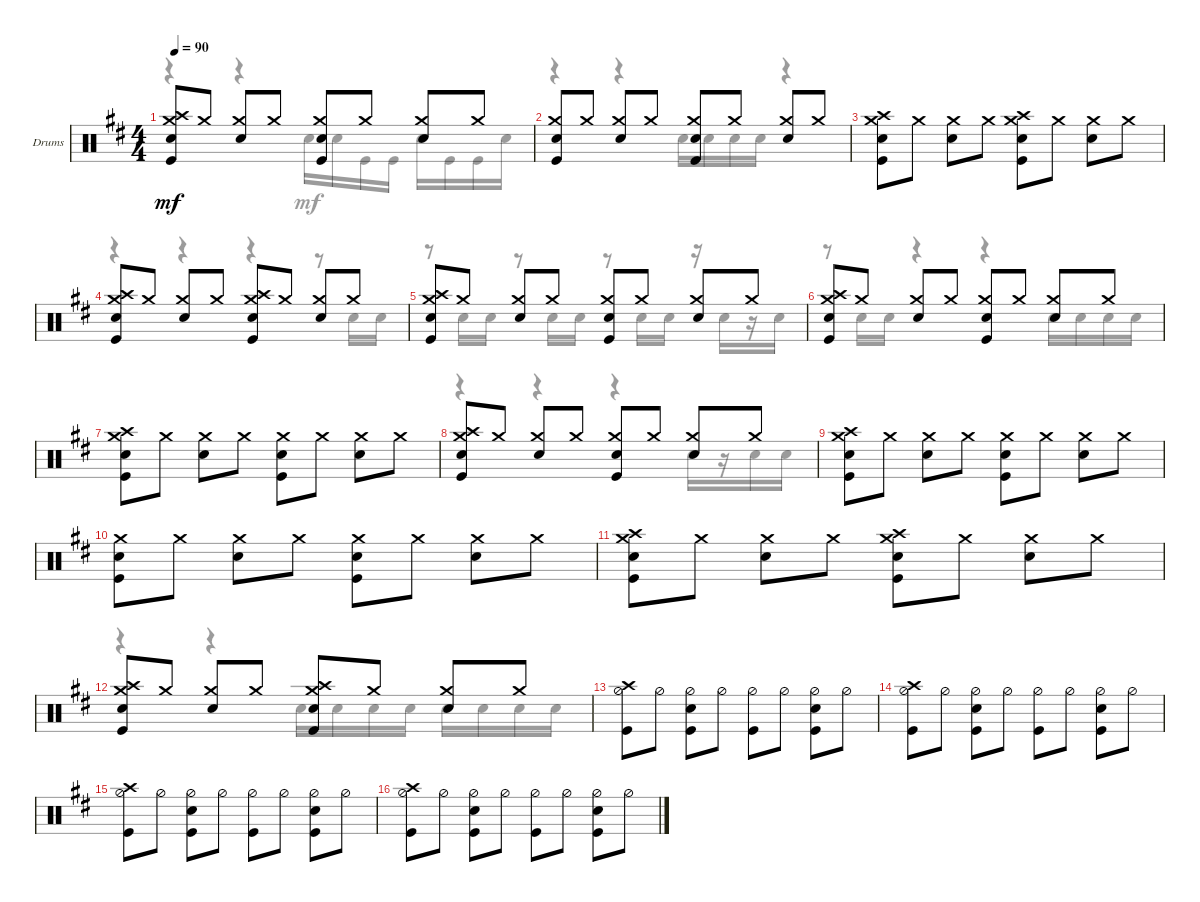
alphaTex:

\defaultSystemsLayout 4
\bracketExtendMode groupsimilarinstruments
\firstSystemTrackNameOrientation horizontal
\otherSystemsTrackNameOrientation horizontal
\track ("Drumkit" "Drums") {instrument percussion}
\staff {score}
\articulation defaults
\voice
\ts (4 4)
\tempo 90
\clef neutral
\ks bminor
("Kick (hit)" "Snare (hit) 2" "Crash medium (hit)" "Crash high (hit)").8{dy mf} "Crash medium (hit)".8 ("Snare (hit) 2" "Crash medium (hit)").8 "Crash medium (hit)".8 ("Kick (hit)" "Snare (hit) 2" "Crash medium (hit)").8 "Crash medium (hit)".8 ("Snare (hit) 2" "Crash medium (hit)").8 "Crash medium (hit)".8 |
("Kick (hit)" "Snare (hit) 2" "Crash medium (hit)").8 "Crash medium (hit)".8 ("Snare (hit) 2" "Crash medium (hit)").8 "Crash medium (hit)".8 ("Kick (hit)" "Snare (hit) 2" "Crash medium (hit)").8 "Crash medium (hit)".8 ("Snare (hit) 2" "Crash medium (hit)").8 "Crash medium (hit)".8 |
("Kick (hit)" "Snare (hit) 2" "Crash medium (hit)" "Crash high (hit)").8 "Crash medium (hit)".8 ("Snare (hit) 2" "Crash medium (hit)").8 "Crash medium (hit)".8 ("Kick (hit)" "Snare (hit) 2" "Crash medium (hit)" "Crash high (hit)").8 "Crash medium (hit)".8 ("Snare (hit) 2" "Crash medium (hit)").8 "Crash medium (hit)".8 |
("Kick (hit)" "Snare (hit) 2" "Crash medium (hit)" "Crash high (hit)").8 "Crash medium (hit)".8 ("Snare (hit) 2" "Crash medium (hit)").8 "Crash medium (hit)".8 ("Kick (hit)" "Snare (hit) 2" "Crash medium (hit)" "Crash high (hit)").8 "Crash medium (hit)".8 ("Snare (hit) 2" "Crash medium (hit)").8 "Crash medium (hit)".8 |
("Kick (hit)" "Snare (hit) 2" "Crash medium (hit)" "Crash high (hit)").8 "Crash medium (hit)".8 ("Snare (hit) 2" "Crash medium (hit)").8 "Crash medium (hit)".8 ("Kick (hit)" "Snare (hit) 2" "Crash medium (hit)").8 "Crash medium (hit)".8 ("Snare (hit) 2" "Crash medium (hit)").8 "Crash medium (hit)".8 |
("Kick (hit)" "Snare (hit) 2" "Crash medium (hit)" "Crash high (hit)").8 "Crash medium (hit)".8 ("Snare (hit) 2" "Crash medium (hit)").8 "Crash medium (hit)".8 ("Kick (hit)" "Snare (hit) 2" "Crash medium (hit)").8 "Crash medium (hit)".8 ("Snare (hit) 2" "Crash medium (hit)").8 "Crash medium (hit)".8 |
("Kick (hit)" "Snare (hit) 2" "Crash medium (hit)" "Crash high (hit)").8 "Crash medium (hit)".8 ("Snare (hit) 2" "Crash medium (hit)").8 "Crash medium (hit)".8 ("Kick (hit)" "Snare (hit) 2" "Crash medium (hit)").8 "Crash medium (hit)".8 ("Snare (hit) 2" "Crash medium (hit)").8 "Crash medium (hit)".8 |
("Kick (hit)" "Snare (hit) 2" "Crash medium (hit)" "Crash high (hit)").8 "Crash medium (hit)".8 ("Snare (hit) 2" "Crash medium (hit)").8 "Crash medium (hit)".8 ("Kick (hit)" "Snare (hit) 2" "Crash medium (hit)").8 "Crash medium (hit)".8 ("Snare (hit) 2" "Crash medium (hit)").8 "Crash medium (hit)".8 |
("Kick (hit)" "Snare (hit) 2" "Crash medium (hit)" "Crash high (hit)").8 "Crash medium (hit)".8 ("Snare (hit) 2" "Crash medium (hit)").8 "Crash medium (hit)".8 ("Kick (hit)" "Snare (hit) 2" "Crash medium (hit)").8 "Crash medium (hit)".8 ("Snare (hit) 2" "Crash medium (hit)").8 "Crash medium (hit)".8 |
("Kick (hit)" "Snare (hit) 2" "Crash medium (hit)").8 "Crash medium (hit)".8 ("Snare (hit) 2" "Crash medium (hit)").8 "Crash medium (hit)".8 ("Kick (hit)" "Snare (hit) 2" "Crash medium (hit)").8 "Crash medium (hit)".8 ("Snare (hit) 2" "Crash medium (hit)").8 "Crash medium (hit)".8 |
("Kick (hit)" "Snare (hit) 2" "Crash medium (hit)" "Crash high (hit)").8 "Crash medium (hit)".8 ("Snare (hit) 2" "Crash medium (hit)").8 "Crash medium (hit)".8 ("Kick (hit)" "Snare (hit) 2" "Crash medium (hit)" "Crash high (hit)").8 "Crash medium (hit)".8 ("Snare (hit) 2" "Crash medium (hit)").8 "Crash medium (hit)".8 |
("Kick (hit)" "Snare (hit) 2" "Crash medium (hit)" "Crash high (hit)").8 "Crash medium (hit)".8 ("Snare (hit) 2" "Crash medium (hit)").8 "Crash medium (hit)".8 ("Kick (hit)" "Snare (hit) 2" "Crash medium (hit)" "Crash high (hit)").8 "Crash medium (hit)".8 ("Snare (hit) 2" "Crash medium (hit)").8 "Crash medium (hit)".8 |
("Crash high (hit)" "Kick (hit)" "Hi-Hat (half)").8 "Hi-Hat (half)".8 ("Hi-Hat (half)" "Snare (hit) 2" "Kick (hit)").8 "Hi-Hat (half)".8 ("Hi-Hat (half)" "Kick (hit)").8 "Hi-Hat (half)".8 ("Hi-Hat (half)" "Snare (hit) 2" "Kick (hit)").8 "Hi-Hat (half)".8 |
("Crash high (hit)" "Kick (hit)" "Hi-Hat (half)").8 "Hi-Hat (half)".8 ("Hi-Hat (half)" "Snare (hit) 2" "Kick (hit)").8 "Hi-Hat (half)".8 ("Hi-Hat (half)" "Kick (hit)").8 "Hi-Hat (half)".8 ("Hi-Hat (half)" "Snare (hit) 2" "Kick (hit)").8 "Hi-Hat (half)".8 |
("Crash high (hit)" "Hi-Hat (half)" "Kick (hit)").8 "Hi-Hat (half)".8 ("Hi-Hat (half)" "Snare (hit) 2" "Kick (hit)").8 "Hi-Hat (half)".8 ("Hi-Hat (half)" "Kick (hit)").8 "Hi-Hat (half)".8 ("Hi-Hat (half)" "Snare (hit) 2" "Kick (hit)").8 "Hi-Hat (half)".8 |
("Crash high (hit)" "Hi-Hat (half)" "Kick (hit)").8 "Hi-Hat (half)".8 ("Hi-Hat (half)" "Snare (hit) 2" "Kick (hit)").8 "Hi-Hat (half)".8 ("Hi-Hat (half)" "Kick (hit)").8 "Hi-Hat (half)".8 ("Hi-Hat (half)" "Snare (hit) 2" "Kick (hit)").8 "Hi-Hat (half)".8
\voice
\clef neutral
\ottava regular
\simile none
\ks bminor
r.4{dy mf} r.4 "Snare (hit) 2".16 "Snare (hit) 2".16 "Kick (hit)".16 "Kick (hit)".16 "Snare (hit) 2".16 "Kick (hit)".16 "Kick (hit)".16 "Snare (hit) 2".16 |
r.4 r.4 "Snare (hit) 2".16 "Snare (hit) 2".16 "Snare (hit) 2".16 "Snare (hit) 2".16 r.4 |
|
r.4 r.4 r.4 r.8 "Snare (hit) 2".16 "Snare (hit) 2".16 |
r.8 "Snare (hit) 2".16 "Snare (hit) 2".16 r.8 "Snare (hit) 2".16 "Snare (hit) 2".16 r.8 "Snare (hit) 2".16 "Snare (hit) 2".16 r.16 "Snare (hit) 2".16 r.16 "Snare (hit) 2".16 |
r.8 "Snare (hit) 2".16 "Snare (hit) 2".16 r.4 r.4 "Snare (hit) 2".16 "Snare (hit) 2".16 "Snare (hit) 2".16 "Snare (hit) 2".16 |
|
r.4 r.4 r.4 "Snare (hit) 2".16 r.16 "Snare (hit) 2".16 "Snare (hit) 2".16 |
|
|
|
r.4 r.4 "Snare (hit) 2".16 "Snare (hit) 2".16 "Snare (hit) 2".16 "Snare (hit) 2".16 "Snare (hit) 2".16 "Snare (hit) 2".16 "Snare (hit) 2".16 "Snare (hit) 2".16 |
|
|
|
